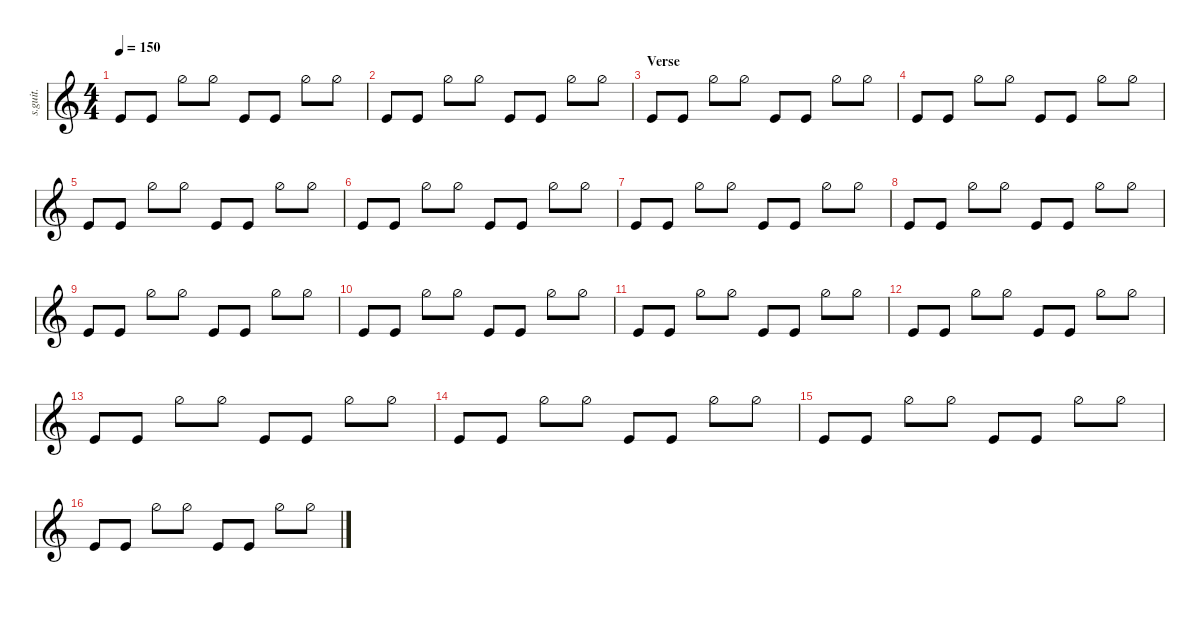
\defaultSystemsLayout 4
\hideDynamics
\bracketExtendMode nobrackets
\track ("Synth Drums 1" "s.guit.") {instrument percussion}
\staff {score}
\articulation defaults
\ts (4 4)
\tempo 150
\clef g2
\ks c "Kick (hit)".8{lyrics (0 "") lyrics (1 "") lyrics (2 "") lyrics (3 "") lyrics (4 "") dy f} "Kick (hit)".8{lyrics (0 "") lyrics (1 "") lyrics (2 "") lyrics (3 "") lyrics (4 "")} "Hi-Hat (half)".8{lyrics (0 "") lyrics (1 "") lyrics (2 "") lyrics (3 "") lyrics (4 "")} "Hi-Hat (half)".8{lyrics (0 "") lyrics (1 "") lyrics (2 "") lyrics (3 "") lyrics (4 "")} "Kick (hit)".8{lyrics (0 "") lyrics (1 "") lyrics (2 "") lyrics (3 "") lyrics (4 "")} "Kick (hit)".8{lyrics (0 "") lyrics (1 "") lyrics (2 "") lyrics (3 "") lyrics (4 "")} "Hi-Hat (half)".8{lyrics (0 "") lyrics (1 "") lyrics (2 "") lyrics (3 "") lyrics (4 "")} "Hi-Hat (half)".8{lyrics (0 "") lyrics (1 "") lyrics (2 "") lyrics (3 "") lyrics (4 "")}
|
"Kick (hit)".8{lyrics (0 "") lyrics (1 "") lyrics (2 "") lyrics (3 "") lyrics (4 "")} "Kick (hit)".8{lyrics (0 "") lyrics (1 "") lyrics (2 "") lyrics (3 "") lyrics (4 "")} "Hi-Hat (half)".8{lyrics (0 "") lyrics (1 "") lyrics (2 "") lyrics (3 "") lyrics (4 "")} "Hi-Hat (half)".8{lyrics (0 "") lyrics (1 "") lyrics (2 "") lyrics (3 "") lyrics (4 "")} "Kick (hit)".8{lyrics (0 "") lyrics (1 "") lyrics (2 "") lyrics (3 "") lyrics (4 "")} "Kick (hit)".8{lyrics (0 "") lyrics (1 "") lyrics (2 "") lyrics (3 "") lyrics (4 "")} "Hi-Hat (half)".8{lyrics (0 "") lyrics (1 "") lyrics (2 "") lyrics (3 "") lyrics (4 "")} "Hi-Hat (half)".8{lyrics (0 "") lyrics (1 "") lyrics (2 "") lyrics (3 "") lyrics (4 "")} |
\section ("" "Verse")
"Kick (hit)".8{lyrics (0 "") lyrics (1 "") lyrics (2 "") lyrics (3 "") lyrics (4 "")} "Kick (hit)".8{lyrics (0 "") lyrics (1 "") lyrics (2 "") lyrics (3 "") lyrics (4 "")} "Hi-Hat (half)".8{lyrics (0 "") lyrics (1 "") lyrics (2 "") lyrics (3 "") lyrics (4 "")} "Hi-Hat (half)".8{lyrics (0 "") lyrics (1 "") lyrics (2 "") lyrics (3 "") lyrics (4 "")} "Kick (hit)".8{lyrics (0 "") lyrics (1 "") lyrics (2 "") lyrics (3 "") lyrics (4 "")} "Kick (hit)".8{lyrics (0 "") lyrics (1 "") lyrics (2 "") lyrics (3 "") lyrics (4 "")} "Hi-Hat (half)".8{lyrics (0 "") lyrics (1 "") lyrics (2 "") lyrics (3 "") lyrics (4 "")} "Hi-Hat (half)".8{lyrics (0 "") lyrics (1 "") lyrics (2 "") lyrics (3 "") lyrics (4 "")} |
"Kick (hit)".8{lyrics (0 "") lyrics (1 "") lyrics (2 "") lyrics (3 "") lyrics (4 "")} "Kick (hit)".8{lyrics (0 "") lyrics (1 "") lyrics (2 "") lyrics (3 "") lyrics (4 "")} "Hi-Hat (half)".8{lyrics (0 "") lyrics (1 "") lyrics (2 "") lyrics (3 "") lyrics (4 "")} "Hi-Hat (half)".8{lyrics (0 "") lyrics (1 "") lyrics (2 "") lyrics (3 "") lyrics (4 "")} "Kick (hit)".8{lyrics (0 "") lyrics (1 "") lyrics (2 "") lyrics (3 "") lyrics (4 "")} "Kick (hit)".8{lyrics (0 "") lyrics (1 "") lyrics (2 "") lyrics (3 "") lyrics (4 "")} "Hi-Hat (half)".8{lyrics (0 "") lyrics (1 "") lyrics (2 "") lyrics (3 "") lyrics (4 "")} "Hi-Hat (half)".8{lyrics (0 "") lyrics (1 "") lyrics (2 "") lyrics (3 "") lyrics (4 "")} |
"Kick (hit)".8{lyrics (0 "") lyrics (1 "") lyrics (2 "") lyrics (3 "") lyrics (4 "")} "Kick (hit)".8{lyrics (0 "") lyrics (1 "") lyrics (2 "") lyrics (3 "") lyrics (4 "")} "Hi-Hat (half)".8{lyrics (0 "") lyrics (1 "") lyrics (2 "") lyrics (3 "") lyrics (4 "")} "Hi-Hat (half)".8{lyrics (0 "") lyrics (1 "") lyrics (2 "") lyrics (3 "") lyrics (4 "")} "Kick (hit)".8{lyrics (0 "") lyrics (1 "") lyrics (2 "") lyrics (3 "") lyrics (4 "")} "Kick (hit)".8{lyrics (0 "") lyrics (1 "") lyrics (2 "") lyrics (3 "") lyrics (4 "")} "Hi-Hat (half)".8{lyrics (0 "") lyrics (1 "") lyrics (2 "") lyrics (3 "") lyrics (4 "")} "Hi-Hat (half)".8{lyrics (0 "") lyrics (1 "") lyrics (2 "") lyrics (3 "") lyrics (4 "")} |
"Kick (hit)".8{lyrics (0 "") lyrics (1 "") lyrics (2 "") lyrics (3 "") lyrics (4 "")} "Kick (hit)".8{lyrics (0 "") lyrics (1 "") lyrics (2 "") lyrics (3 "") lyrics (4 "")} "Hi-Hat (half)".8{lyrics (0 "") lyrics (1 "") lyrics (2 "") lyrics (3 "") lyrics (4 "")} "Hi-Hat (half)".8{lyrics (0 "") lyrics (1 "") lyrics (2 "") lyrics (3 "") lyrics (4 "")} "Kick (hit)".8{lyrics (0 "") lyrics (1 "") lyrics (2 "") lyrics (3 "") lyrics (4 "")} "Kick (hit)".8{lyrics (0 "") lyrics (1 "") lyrics (2 "") lyrics (3 "") lyrics (4 "")} "Hi-Hat (half)".8{lyrics (0 "") lyrics (1 "") lyrics (2 "") lyrics (3 "") lyrics (4 "")} "Hi-Hat (half)".8{lyrics (0 "") lyrics (1 "") lyrics (2 "") lyrics (3 "") lyrics (4 "")} |
"Kick (hit)".8{lyrics (0 "") lyrics (1 "") lyrics (2 "") lyrics (3 "") lyrics (4 "")} "Kick (hit)".8{lyrics (0 "") lyrics (1 "") lyrics (2 "") lyrics (3 "") lyrics (4 "")} "Hi-Hat (half)".8{lyrics (0 "") lyrics (1 "") lyrics (2 "") lyrics (3 "") lyrics (4 "")} "Hi-Hat (half)".8{lyrics (0 "") lyrics (1 "") lyrics (2 "") lyrics (3 "") lyrics (4 "")} "Kick (hit)".8{lyrics (0 "") lyrics (1 "") lyrics (2 "") lyrics (3 "") lyrics (4 "")} "Kick (hit)".8{lyrics (0 "") lyrics (1 "") lyrics (2 "") lyrics (3 "") lyrics (4 "")} "Hi-Hat (half)".8{lyrics (0 "") lyrics (1 "") lyrics (2 "") lyrics (3 "") lyrics (4 "")} "Hi-Hat (half)".8{lyrics (0 "") lyrics (1 "") lyrics (2 "") lyrics (3 "") lyrics (4 "")} |
"Kick (hit)".8{lyrics (0 "") lyrics (1 "") lyrics (2 "") lyrics (3 "") lyrics (4 "")} "Kick (hit)".8{lyrics (0 "") lyrics (1 "") lyrics (2 "") lyrics (3 "") lyrics (4 "")} "Hi-Hat (half)".8{lyrics (0 "") lyrics (1 "") lyrics (2 "") lyrics (3 "") lyrics (4 "")} "Hi-Hat (half)".8{lyrics (0 "") lyrics (1 "") lyrics (2 "") lyrics (3 "") lyrics (4 "")} "Kick (hit)".8{lyrics (0 "") lyrics (1 "") lyrics (2 "") lyrics (3 "") lyrics (4 "")} "Kick (hit)".8{lyrics (0 "") lyrics (1 "") lyrics (2 "") lyrics (3 "") lyrics (4 "")} "Hi-Hat (half)".8{lyrics (0 "") lyrics (1 "") lyrics (2 "") lyrics (3 "") lyrics (4 "")} "Hi-Hat (half)".8{lyrics (0 "") lyrics (1 "") lyrics (2 "") lyrics (3 "") lyrics (4 "")} |
"Kick (hit)".8{lyrics (0 "") lyrics (1 "") lyrics (2 "") lyrics (3 "") lyrics (4 "")} "Kick (hit)".8{lyrics (0 "") lyrics (1 "") lyrics (2 "") lyrics (3 "") lyrics (4 "")} "Hi-Hat (half)".8{lyrics (0 "") lyrics (1 "") lyrics (2 "") lyrics (3 "") lyrics (4 "")} "Hi-Hat (half)".8{lyrics (0 "") lyrics (1 "") lyrics (2 "") lyrics (3 "") lyrics (4 "")} "Kick (hit)".8{lyrics (0 "") lyrics (1 "") lyrics (2 "") lyrics (3 "") lyrics (4 "")} "Kick (hit)".8{lyrics (0 "") lyrics (1 "") lyrics (2 "") lyrics (3 "") lyrics (4 "")} "Hi-Hat (half)".8{lyrics (0 "") lyrics (1 "") lyrics (2 "") lyrics (3 "") lyrics (4 "")} "Hi-Hat (half)".8{lyrics (0 "") lyrics (1 "") lyrics (2 "") lyrics (3 "") lyrics (4 "")} |
"Kick (hit)".8{lyrics (0 "") lyrics (1 "") lyrics (2 "") lyrics (3 "") lyrics (4 "")} "Kick (hit)".8{lyrics (0 "") lyrics (1 "") lyrics (2 "") lyrics (3 "") lyrics (4 "")} "Hi-Hat (half)".8{lyrics (0 "") lyrics (1 "") lyrics (2 "") lyrics (3 "") lyrics (4 "")} "Hi-Hat (half)".8{lyrics (0 "") lyrics (1 "") lyrics (2 "") lyrics (3 "") lyrics (4 "")} "Kick (hit)".8{lyrics (0 "") lyrics (1 "") lyrics (2 "") lyrics (3 "") lyrics (4 "")} "Kick (hit)".8{lyrics (0 "") lyrics (1 "") lyrics (2 "") lyrics (3 "") lyrics (4 "")} "Hi-Hat (half)".8{lyrics (0 "") lyrics (1 "") lyrics (2 "") lyrics (3 "") lyrics (4 "")} "Hi-Hat (half)".8{lyrics (0 "") lyrics (1 "") lyrics (2 "") lyrics (3 "") lyrics (4 "")} |
"Kick (hit)".8{lyrics (0 "") lyrics (1 "") lyrics (2 "") lyrics (3 "") lyrics (4 "")} "Kick (hit)".8{lyrics (0 "") lyrics (1 "") lyrics (2 "") lyrics (3 "") lyrics (4 "")} "Hi-Hat (half)".8{lyrics (0 "") lyrics (1 "") lyrics (2 "") lyrics (3 "") lyrics (4 "")} "Hi-Hat (half)".8{lyrics (0 "") lyrics (1 "") lyrics (2 "") lyrics (3 "") lyrics (4 "")} "Kick (hit)".8{lyrics (0 "") lyrics (1 "") lyrics (2 "") lyrics (3 "") lyrics (4 "")} "Kick (hit)".8{lyrics (0 "") lyrics (1 "") lyrics (2 "") lyrics (3 "") lyrics (4 "")} "Hi-Hat (half)".8{lyrics (0 "") lyrics (1 "") lyrics (2 "") lyrics (3 "") lyrics (4 "")} "Hi-Hat (half)".8{lyrics (0 "") lyrics (1 "") lyrics (2 "") lyrics (3 "") lyrics (4 "")} |
"Kick (hit)".8{lyrics (0 "") lyrics (1 "") lyrics (2 "") lyrics (3 "") lyrics (4 "")} "Kick (hit)".8{lyrics (0 "") lyrics (1 "") lyrics (2 "") lyrics (3 "") lyrics (4 "")} "Hi-Hat (half)".8{lyrics (0 "") lyrics (1 "") lyrics (2 "") lyrics (3 "") lyrics (4 "")} "Hi-Hat (half)".8{lyrics (0 "") lyrics (1 "") lyrics (2 "") lyrics (3 "") lyrics (4 "")} "Kick (hit)".8{lyrics (0 "") lyrics (1 "") lyrics (2 "") lyrics (3 "") lyrics (4 "")} "Kick (hit)".8{lyrics (0 "") lyrics (1 "") lyrics (2 "") lyrics (3 "") lyrics (4 "")} "Hi-Hat (half)".8{lyrics (0 "") lyrics (1 "") lyrics (2 "") lyrics (3 "") lyrics (4 "")} "Hi-Hat (half)".8{lyrics (0 "") lyrics (1 "") lyrics (2 "") lyrics (3 "") lyrics (4 "")} |
"Kick (hit)".8{lyrics (0 "") lyrics (1 "") lyrics (2 "") lyrics (3 "") lyrics (4 "")} "Kick (hit)".8{lyrics (0 "") lyrics (1 "") lyrics (2 "") lyrics (3 "") lyrics (4 "")} "Hi-Hat (half)".8{lyrics (0 "") lyrics (1 "") lyrics (2 "") lyrics (3 "") lyrics (4 "")} "Hi-Hat (half)".8{lyrics (0 "") lyrics (1 "") lyrics (2 "") lyrics (3 "") lyrics (4 "")} "Kick (hit)".8{lyrics (0 "") lyrics (1 "") lyrics (2 "") lyrics (3 "") lyrics (4 "")} "Kick (hit)".8{lyrics (0 "") lyrics (1 "") lyrics (2 "") lyrics (3 "") lyrics (4 "")} "Hi-Hat (half)".8{lyrics (0 "") lyrics (1 "") lyrics (2 "") lyrics (3 "") lyrics (4 "")} "Hi-Hat (half)".8{lyrics (0 "") lyrics (1 "") lyrics (2 "") lyrics (3 "") lyrics (4 "")} |
"Kick (hit)".8{lyrics (0 "") lyrics (1 "") lyrics (2 "") lyrics (3 "") lyrics (4 "")} "Kick (hit)".8{lyrics (0 "") lyrics (1 "") lyrics (2 "") lyrics (3 "") lyrics (4 "")} "Hi-Hat (half)".8{lyrics (0 "") lyrics (1 "") lyrics (2 "") lyrics (3 "") lyrics (4 "")} "Hi-Hat (half)".8{lyrics (0 "") lyrics (1 "") lyrics (2 "") lyrics (3 "") lyrics (4 "")} "Kick (hit)".8{lyrics (0 "") lyrics (1 "") lyrics (2 "") lyrics (3 "") lyrics (4 "")} "Kick (hit)".8{lyrics (0 "") lyrics (1 "") lyrics (2 "") lyrics (3 "") lyrics (4 "")} "Hi-Hat (half)".8{lyrics (0 "") lyrics (1 "") lyrics (2 "") lyrics (3 "") lyrics (4 "")} "Hi-Hat (half)".8{lyrics (0 "") lyrics (1 "") lyrics (2 "") lyrics (3 "") lyrics (4 "")} |
"Kick (hit)".8{lyrics (0 "") lyrics (1 "") lyrics (2 "") lyrics (3 "") lyrics (4 "")} "Kick (hit)".8{lyrics (0 "") lyrics (1 "") lyrics (2 "") lyrics (3 "") lyrics (4 "")} "Hi-Hat (half)".8{lyrics (0 "") lyrics (1 "") lyrics (2 "") lyrics (3 "") lyrics (4 "")} "Hi-Hat (half)".8{lyrics (0 "") lyrics (1 "") lyrics (2 "") lyrics (3 "") lyrics (4 "")} "Kick (hit)".8{lyrics (0 "") lyrics (1 "") lyrics (2 "") lyrics (3 "") lyrics (4 "")} "Kick (hit)".8{lyrics (0 "") lyrics (1 "") lyrics (2 "") lyrics (3 "") lyrics (4 "")} "Hi-Hat (half)".8{lyrics (0 "") lyrics (1 "") lyrics (2 "") lyrics (3 "") lyrics (4 "")} "Hi-Hat (half)".8{lyrics (0 "") lyrics (1 "") lyrics (2 "") lyrics (3 "") lyrics (4 "")} |
"Kick (hit)".8{lyrics (0 "") lyrics (1 "") lyrics (2 "") lyrics (3 "") lyrics (4 "")} "Kick (hit)".8{lyrics (0 "") lyrics (1 "") lyrics (2 "") lyrics (3 "") lyrics (4 "")} "Hi-Hat (half)".8{lyrics (0 "") lyrics (1 "") lyrics (2 "") lyrics (3 "") lyrics (4 "")} "Hi-Hat (half)".8{lyrics (0 "") lyrics (1 "") lyrics (2 "") lyrics (3 "") lyrics (4 "")} "Kick (hit)".8{lyrics (0 "") lyrics (1 "") lyrics (2 "") lyrics (3 "") lyrics (4 "")} "Kick (hit)".8{lyrics (0 "") lyrics (1 "") lyrics (2 "") lyrics (3 "") lyrics (4 "")} "Hi-Hat (half)".8{lyrics (0 "") lyrics (1 "") lyrics (2 "") lyrics (3 "") lyrics (4 "")} "Hi-Hat (half)".8{lyrics (0 "") lyrics (1 "") lyrics (2 "") lyrics (3 "") lyrics (4 "")}
